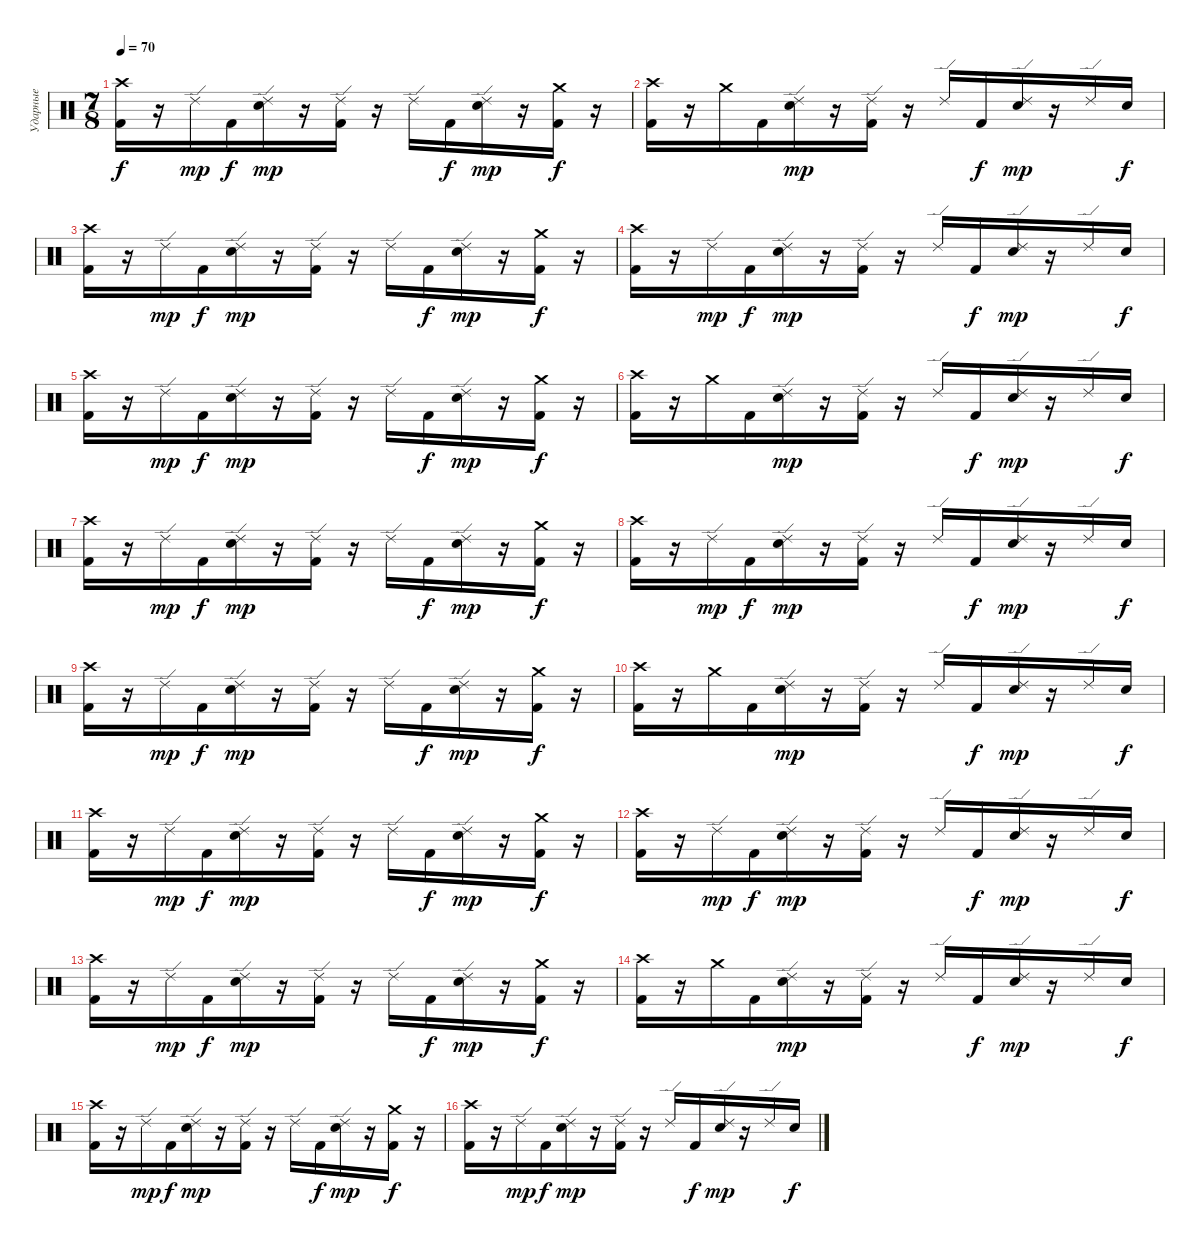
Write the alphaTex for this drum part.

\track ("Ударные" "Ударные") {instrument percussion}
\staff {score}
\articulation defaults
\ts (7 8)
\tempo 70
\clef neutral
\ks c
("Crash high (hit)" "Kick (hit) 2").16{dy f} r.16 "Ride (edge) 2".16{dy mp} "Kick (hit) 2".16{dy f} ("Ride (edge) 2" "Snare (hit) 2").16{dy mp} r.16 ("Ride (edge) 2" "Kick (hit) 2").16 r.16 "Ride (edge) 2".16 "Kick (hit) 2".16{dy f} ("Ride (edge) 2" "Snare (hit) 2").16{dy mp} r.16 ("Crash medium (hit)" "Kick (hit) 2").16{dy f} r.16 |
("Crash high (hit)" "Kick (hit) 2").16 r.16 "Crash medium (hit)".16 "Kick (hit) 2".16 ("Ride (edge) 2" "Snare (hit) 2").16{dy mp} r.16 ("Ride (edge) 2" "Kick (hit) 2").16 r.16 "Ride (edge) 2".16 "Kick (hit) 2".16{dy f} ("Ride (edge) 2" "Snare (hit) 2").16{dy mp} r.16 "Ride (edge) 2".16 "Snare (hit) 2".16{dy f} |
("Crash high (hit)" "Kick (hit) 2").16 r.16 "Ride (edge) 2".16{dy mp} "Kick (hit) 2".16{dy f} ("Ride (edge) 2" "Snare (hit) 2").16{dy mp} r.16 ("Ride (edge) 2" "Kick (hit) 2").16 r.16 "Ride (edge) 2".16 "Kick (hit) 2".16{dy f} ("Ride (edge) 2" "Snare (hit) 2").16{dy mp} r.16 ("Crash medium (hit)" "Kick (hit) 2").16{dy f} r.16 |
("Crash high (hit)" "Kick (hit) 2").16 r.16 "Ride (edge) 2".16{dy mp} "Kick (hit) 2".16{dy f} ("Ride (edge) 2" "Snare (hit) 2").16{dy mp} r.16 ("Ride (edge) 2" "Kick (hit) 2").16 r.16 "Ride (edge) 2".16 "Kick (hit) 2".16{dy f} ("Ride (edge) 2" "Snare (hit) 2").16{dy mp} r.16 "Ride (edge) 2".16 "Snare (hit) 2".16{dy f} |
("Crash high (hit)" "Kick (hit) 2").16 r.16 "Ride (edge) 2".16{dy mp} "Kick (hit) 2".16{dy f} ("Ride (edge) 2" "Snare (hit) 2").16{dy mp} r.16 ("Ride (edge) 2" "Kick (hit) 2").16 r.16 "Ride (edge) 2".16 "Kick (hit) 2".16{dy f} ("Ride (edge) 2" "Snare (hit) 2").16{dy mp} r.16 ("Crash medium (hit)" "Kick (hit) 2").16{dy f} r.16 |
("Crash high (hit)" "Kick (hit) 2").16 r.16 "Crash medium (hit)".16 "Kick (hit) 2".16 ("Ride (edge) 2" "Snare (hit) 2").16{dy mp} r.16 ("Ride (edge) 2" "Kick (hit) 2").16 r.16 "Ride (edge) 2".16 "Kick (hit) 2".16{dy f} ("Ride (edge) 2" "Snare (hit) 2").16{dy mp} r.16 "Ride (edge) 2".16 "Snare (hit) 2".16{dy f} |
("Crash high (hit)" "Kick (hit) 2").16 r.16 "Ride (edge) 2".16{dy mp} "Kick (hit) 2".16{dy f} ("Ride (edge) 2" "Snare (hit) 2").16{dy mp} r.16 ("Ride (edge) 2" "Kick (hit) 2").16 r.16 "Ride (edge) 2".16 "Kick (hit) 2".16{dy f} ("Ride (edge) 2" "Snare (hit) 2").16{dy mp} r.16 ("Crash medium (hit)" "Kick (hit) 2").16{dy f} r.16 |
("Crash high (hit)" "Kick (hit) 2").16 r.16 "Ride (edge) 2".16{dy mp} "Kick (hit) 2".16{dy f} ("Ride (edge) 2" "Snare (hit) 2").16{dy mp} r.16 ("Ride (edge) 2" "Kick (hit) 2").16 r.16 "Ride (edge) 2".16 "Kick (hit) 2".16{dy f} ("Ride (edge) 2" "Snare (hit) 2").16{dy mp} r.16 "Ride (edge) 2".16 "Snare (hit) 2".16{dy f} |
("Crash high (hit)" "Kick (hit) 2").16 r.16 "Ride (edge) 2".16{dy mp} "Kick (hit) 2".16{dy f} ("Ride (edge) 2" "Snare (hit) 2").16{dy mp} r.16 ("Ride (edge) 2" "Kick (hit) 2").16 r.16 "Ride (edge) 2".16 "Kick (hit) 2".16{dy f} ("Ride (edge) 2" "Snare (hit) 2").16{dy mp} r.16 ("Crash medium (hit)" "Kick (hit) 2").16{dy f} r.16 |
("Crash high (hit)" "Kick (hit) 2").16 r.16 "Crash medium (hit)".16 "Kick (hit) 2".16 ("Ride (edge) 2" "Snare (hit) 2").16{dy mp} r.16 ("Ride (edge) 2" "Kick (hit) 2").16 r.16 "Ride (edge) 2".16 "Kick (hit) 2".16{dy f} ("Ride (edge) 2" "Snare (hit) 2").16{dy mp} r.16 "Ride (edge) 2".16 "Snare (hit) 2".16{dy f} |
("Crash high (hit)" "Kick (hit) 2").16 r.16 "Ride (edge) 2".16{dy mp} "Kick (hit) 2".16{dy f} ("Ride (edge) 2" "Snare (hit) 2").16{dy mp} r.16 ("Ride (edge) 2" "Kick (hit) 2").16 r.16 "Ride (edge) 2".16 "Kick (hit) 2".16{dy f} ("Ride (edge) 2" "Snare (hit) 2").16{dy mp} r.16 ("Crash medium (hit)" "Kick (hit) 2").16{dy f} r.16 |
("Crash high (hit)" "Kick (hit) 2").16 r.16 "Ride (edge) 2".16{dy mp} "Kick (hit) 2".16{dy f} ("Ride (edge) 2" "Snare (hit) 2").16{dy mp} r.16 ("Ride (edge) 2" "Kick (hit) 2").16 r.16 "Ride (edge) 2".16 "Kick (hit) 2".16{dy f} ("Ride (edge) 2" "Snare (hit) 2").16{dy mp} r.16 "Ride (edge) 2".16 "Snare (hit) 2".16{dy f} |
("Crash high (hit)" "Kick (hit) 2").16{volume 4} r.16 "Ride (edge) 2".16{dy mp} "Kick (hit) 2".16{dy f} ("Ride (edge) 2" "Snare (hit) 2").16{dy mp} r.16 ("Ride (edge) 2" "Kick (hit) 2").16 r.16 "Ride (edge) 2".16 "Kick (hit) 2".16{dy f} ("Ride (edge) 2" "Snare (hit) 2").16{dy mp} r.16 ("Crash medium (hit)" "Kick (hit) 2").16{dy f} r.16 |
("Crash high (hit)" "Kick (hit) 2").16 r.16 "Crash medium (hit)".16 "Kick (hit) 2".16 ("Ride (edge) 2" "Snare (hit) 2").16{dy mp} r.16 ("Ride (edge) 2" "Kick (hit) 2").16 r.16 "Ride (edge) 2".16 "Kick (hit) 2".16{dy f} ("Ride (edge) 2" "Snare (hit) 2").16{dy mp} r.16 "Ride (edge) 2".16 "Snare (hit) 2".16{dy f} |
("Crash high (hit)" "Kick (hit) 2").16 r.16 "Ride (edge) 2".16{dy mp} "Kick (hit) 2".16{dy f} ("Ride (edge) 2" "Snare (hit) 2").16{dy mp} r.16 ("Ride (edge) 2" "Kick (hit) 2").16 r.16 "Ride (edge) 2".16 "Kick (hit) 2".16{dy f} ("Ride (edge) 2" "Snare (hit) 2").16{dy mp} r.16 ("Crash medium (hit)" "Kick (hit) 2").16{dy f} r.16 |
("Crash high (hit)" "Kick (hit) 2").16 r.16 "Ride (edge) 2".16{dy mp} "Kick (hit) 2".16{dy f} ("Ride (edge) 2" "Snare (hit) 2").16{dy mp} r.16 ("Ride (edge) 2" "Kick (hit) 2").16 r.16 "Ride (edge) 2".16 "Kick (hit) 2".16{dy f} ("Ride (edge) 2" "Snare (hit) 2").16{dy mp} r.16 "Ride (edge) 2".16 "Snare (hit) 2".16{dy f}
